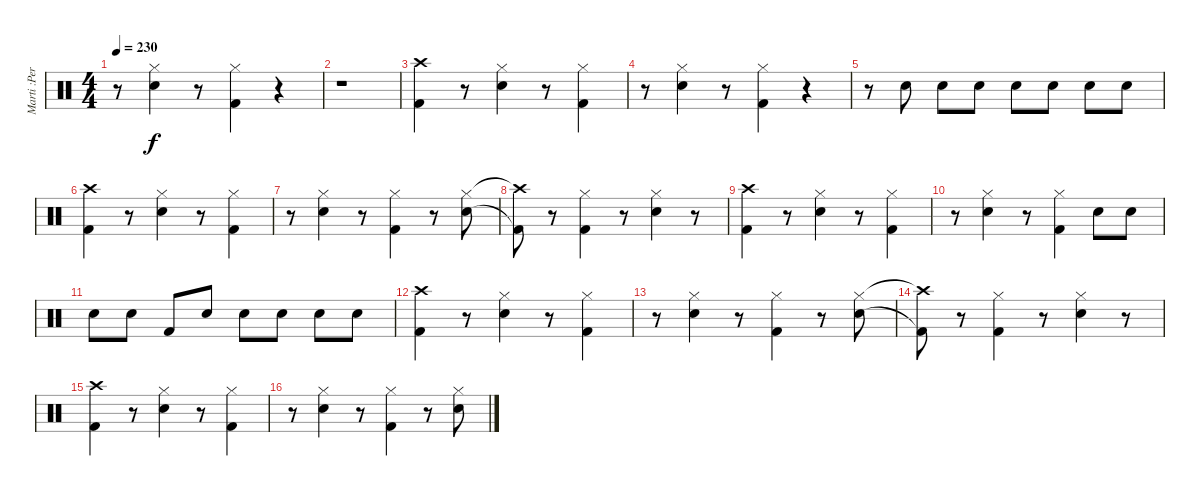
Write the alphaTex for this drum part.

\track ("Marti :Percussion" "Marti :Per") {instrument percussion}
\staff {score}
\articulation defaults
\ts (4 4)
\tempo 230
\clef neutral
\ks c
r.8{dy f} ("Hi-Hat (closed)" "Snare (hit) 2").4 r.8 ("Hi-Hat (closed)" "Kick (hit) 2").4 r.4 |
r.1 |
("Crash high (hit)" "Kick (hit) 2").4 r.8 ("Hi-Hat (closed)" "Snare (hit) 2").4 r.8 ("Hi-Hat (closed)" "Kick (hit) 2").4 |
r.8 ("Hi-Hat (closed)" "Snare (hit) 2").4 r.8 ("Hi-Hat (closed)" "Kick (hit) 2").4 r.4 |
r.8 "Snare (hit) 2".8 "Snare (hit) 2".8 "Snare (hit) 2".8 "Snare (hit) 2".8 "Snare (hit) 2".8 "Snare (hit) 2".8 "Snare (hit) 2".8 |
("Crash high (hit)" "Kick (hit) 2").4 r.8 ("Hi-Hat (closed)" "Snare (hit) 2").4 r.8 ("Hi-Hat (closed)" "Kick (hit) 2").4 |
r.8 ("Hi-Hat (closed)" "Snare (hit) 2").4 r.8 ("Hi-Hat (closed)" "Kick (hit) 2").4 r.8 ("Hi-Hat (closed)" "Snare (hit) 2").8 |
("Crash high (hit)"{t} "Kick (hit) 2"{t}).8 r.8 ("Hi-Hat (closed)" "Kick (hit) 2").4 r.8 ("Hi-Hat (closed)" "Snare (hit) 2").4 r.8 |
("Crash high (hit)" "Kick (hit) 2").4 r.8 ("Hi-Hat (closed)" "Snare (hit) 2").4 r.8 ("Hi-Hat (closed)" "Kick (hit) 2").4 |
r.8 ("Hi-Hat (closed)" "Snare (hit) 2").4 r.8 ("Hi-Hat (closed)" "Kick (hit) 2").4 "Snare (hit) 2".8 "Snare (hit) 2".8 |
"Snare (hit) 2".8 "Snare (hit) 2".8 "Kick (hit) 2".8 "Snare (hit) 2".8 "Snare (hit) 2".8 "Snare (hit) 2".8 "Snare (hit) 2".8 "Snare (hit) 2".8 |
("Crash high (hit)" "Kick (hit) 2").4 r.8 ("Hi-Hat (closed)" "Snare (hit) 2").4 r.8 ("Hi-Hat (closed)" "Kick (hit) 2").4 |
r.8 ("Hi-Hat (closed)" "Snare (hit) 2").4 r.8 ("Hi-Hat (closed)" "Kick (hit) 2").4 r.8 ("Hi-Hat (closed)" "Snare (hit) 2").8 |
("Crash high (hit)"{t} "Kick (hit) 2"{t}).8 r.8 ("Hi-Hat (closed)" "Kick (hit) 2").4 r.8 ("Hi-Hat (closed)" "Snare (hit) 2").4 r.8 |
("Crash high (hit)" "Kick (hit) 2").4 r.8 ("Hi-Hat (closed)" "Snare (hit) 2").4 r.8 ("Hi-Hat (closed)" "Kick (hit) 2").4 |
r.8 ("Hi-Hat (closed)" "Snare (hit) 2").4 r.8 ("Hi-Hat (closed)" "Kick (hit) 2").4 r.8 ("Hi-Hat (closed)" "Snare (hit) 2").8
